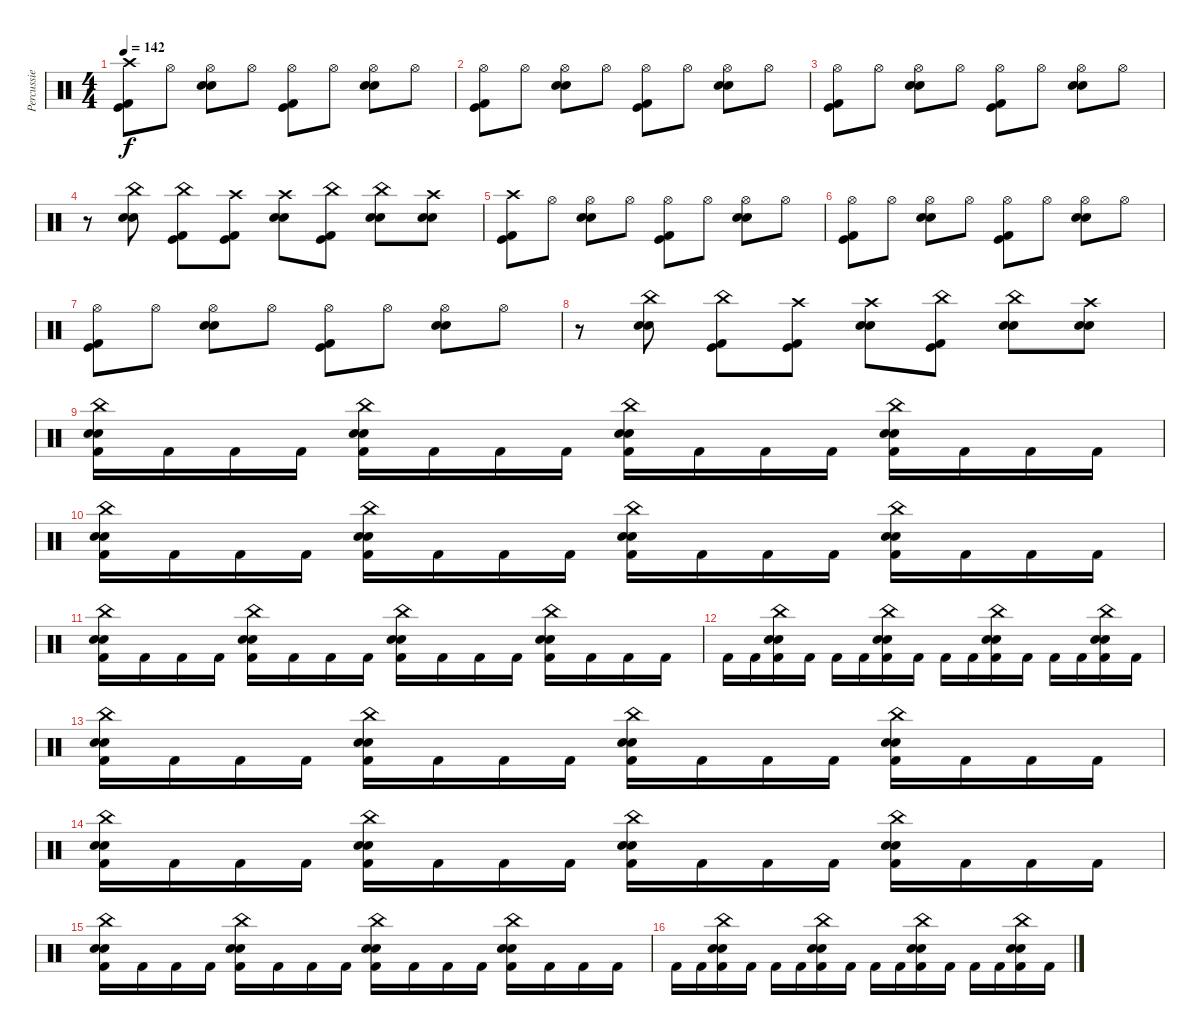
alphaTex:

\track ("Percussie" "Percussie") {instrument percussion}
\staff {score}
\articulation defaults
\ts (4 4)
\tempo 142
\clef neutral
\ks c
("Kick (hit) 2" "Kick (hit)" "Crash high (hit)").8{dy f} "Hi-Hat (open)".8 ("Snare (hit) 2" "Electric Snare (hit)" "Hi-Hat (open)").8 "Hi-Hat (open)".8 ("Kick (hit) 2" "Kick (hit)" "Hi-Hat (open)").8 "Hi-Hat (open)".8 ("Snare (hit) 2" "Electric Snare (hit)" "Hi-Hat (open)").8 "Hi-Hat (open)".8 |
("Kick (hit) 2" "Kick (hit)" "Hi-Hat (open)").8 "Hi-Hat (open)".8 ("Snare (hit) 2" "Electric Snare (hit)" "Hi-Hat (open)").8 "Hi-Hat (open)".8 ("Kick (hit) 2" "Kick (hit)" "Hi-Hat (open)").8 "Hi-Hat (open)".8 ("Snare (hit) 2" "Electric Snare (hit)" "Hi-Hat (open)").8 "Hi-Hat (open)".8 |
("Kick (hit) 2" "Kick (hit)" "Hi-Hat (open)").8 "Hi-Hat (open)".8 ("Snare (hit) 2" "Electric Snare (hit)" "Hi-Hat (open)").8 "Hi-Hat (open)".8 ("Kick (hit) 2" "Kick (hit)" "Hi-Hat (open)").8 "Hi-Hat (open)".8 ("Snare (hit) 2" "Electric Snare (hit)" "Hi-Hat (open)").8 "Hi-Hat (open)".8 |
r.8 ("Snare (hit) 2" "Electric Snare (hit)" "China (hit)").8 ("Kick (hit)" "Kick (hit) 2" "China (hit)").8 ("Kick (hit)" "Kick (hit) 2" "Crash high (hit)").8 ("Snare (hit) 2" "Electric Snare (hit)" "Crash high (hit)").8 ("Kick (hit)" "Kick (hit) 2" "China (hit)").8 ("Snare (hit) 2" "Electric Snare (hit)" "China (hit)").8 ("Snare (hit) 2" "Electric Snare (hit)" "Crash high (hit)").8 |
("Kick (hit) 2" "Kick (hit)" "Crash high (hit)").8 "Hi-Hat (open)".8 ("Snare (hit) 2" "Electric Snare (hit)" "Hi-Hat (open)").8 "Hi-Hat (open)".8 ("Kick (hit) 2" "Kick (hit)" "Hi-Hat (open)").8 "Hi-Hat (open)".8 ("Snare (hit) 2" "Electric Snare (hit)" "Hi-Hat (open)").8 "Hi-Hat (open)".8 |
("Kick (hit) 2" "Kick (hit)" "Hi-Hat (open)").8 "Hi-Hat (open)".8 ("Snare (hit) 2" "Electric Snare (hit)" "Hi-Hat (open)").8 "Hi-Hat (open)".8 ("Kick (hit) 2" "Kick (hit)" "Hi-Hat (open)").8 "Hi-Hat (open)".8 ("Snare (hit) 2" "Electric Snare (hit)" "Hi-Hat (open)").8 "Hi-Hat (open)".8 |
("Kick (hit) 2" "Kick (hit)" "Hi-Hat (open)").8 "Hi-Hat (open)".8 ("Snare (hit) 2" "Electric Snare (hit)" "Hi-Hat (open)").8 "Hi-Hat (open)".8 ("Kick (hit) 2" "Kick (hit)" "Hi-Hat (open)").8 "Hi-Hat (open)".8 ("Snare (hit) 2" "Electric Snare (hit)" "Hi-Hat (open)").8 "Hi-Hat (open)".8 |
r.8 ("Snare (hit) 2" "Electric Snare (hit)" "China (hit)").8 ("Kick (hit)" "Kick (hit) 2" "China (hit)").8 ("Kick (hit)" "Kick (hit) 2" "Crash high (hit)").8 ("Snare (hit) 2" "Electric Snare (hit)" "Crash high (hit)").8 ("Kick (hit)" "Kick (hit) 2" "China (hit)").8 ("Snare (hit) 2" "Electric Snare (hit)" "China (hit)").8 ("Snare (hit) 2" "Electric Snare (hit)" "Crash high (hit)").8 |
("Kick (hit) 2" "Electric Snare (hit)" "Snare (hit) 2" "China (hit)").16 "Kick (hit) 2".16 "Kick (hit) 2".16 "Kick (hit) 2".16 ("Kick (hit) 2" "Electric Snare (hit)" "Snare (hit) 2" "China (hit)").16 "Kick (hit) 2".16 "Kick (hit) 2".16 "Kick (hit) 2".16 ("Kick (hit) 2" "Electric Snare (hit)" "Snare (hit) 2" "China (hit)").16 "Kick (hit) 2".16 "Kick (hit) 2".16 "Kick (hit) 2".16 ("Kick (hit) 2" "Electric Snare (hit)" "Snare (hit) 2" "China (hit)").16 "Kick (hit) 2".16 "Kick (hit) 2".16 "Kick (hit) 2".16 |
("Kick (hit) 2" "Electric Snare (hit)" "Snare (hit) 2" "China (hit)").16 "Kick (hit) 2".16 "Kick (hit) 2".16 "Kick (hit) 2".16 ("Kick (hit) 2" "Electric Snare (hit)" "Snare (hit) 2" "China (hit)").16 "Kick (hit) 2".16 "Kick (hit) 2".16 "Kick (hit) 2".16 ("Kick (hit) 2" "Electric Snare (hit)" "Snare (hit) 2" "China (hit)").16 "Kick (hit) 2".16 "Kick (hit) 2".16 "Kick (hit) 2".16 ("Kick (hit) 2" "Electric Snare (hit)" "Snare (hit) 2" "China (hit)").16 "Kick (hit) 2".16 "Kick (hit) 2".16 "Kick (hit) 2".16 |
("Kick (hit) 2" "Electric Snare (hit)" "Snare (hit) 2" "China (hit)").16 "Kick (hit) 2".16 "Kick (hit) 2".16 "Kick (hit) 2".16 ("Kick (hit) 2" "Electric Snare (hit)" "Snare (hit) 2" "China (hit)").16 "Kick (hit) 2".16 "Kick (hit) 2".16 "Kick (hit) 2".16 ("Kick (hit) 2" "Electric Snare (hit)" "Snare (hit) 2" "China (hit)").16 "Kick (hit) 2".16 "Kick (hit) 2".16 "Kick (hit) 2".16 ("Kick (hit) 2" "Electric Snare (hit)" "Snare (hit) 2" "China (hit)").16 "Kick (hit) 2".16 "Kick (hit) 2".16 "Kick (hit) 2".16 |
"Kick (hit) 2".16 "Kick (hit) 2".16 ("Kick (hit) 2" "Snare (hit) 2" "Electric Snare (hit)" "China (hit)").16 "Kick (hit) 2".16 "Kick (hit) 2".16 "Kick (hit) 2".16 ("Kick (hit) 2" "Snare (hit) 2" "Electric Snare (hit)" "China (hit)").16 "Kick (hit) 2".16 "Kick (hit) 2".16 "Kick (hit) 2".16 ("Kick (hit) 2" "Snare (hit) 2" "Electric Snare (hit)" "China (hit)").16 "Kick (hit) 2".16 "Kick (hit) 2".16 "Kick (hit) 2".16 ("Kick (hit) 2" "Snare (hit) 2" "Electric Snare (hit)" "China (hit)").16 "Kick (hit) 2".16 |
("Kick (hit) 2" "Electric Snare (hit)" "Snare (hit) 2" "China (hit)").16 "Kick (hit) 2".16 "Kick (hit) 2".16 "Kick (hit) 2".16 ("Kick (hit) 2" "Electric Snare (hit)" "Snare (hit) 2" "China (hit)").16 "Kick (hit) 2".16 "Kick (hit) 2".16 "Kick (hit) 2".16 ("Kick (hit) 2" "Electric Snare (hit)" "Snare (hit) 2" "China (hit)").16 "Kick (hit) 2".16 "Kick (hit) 2".16 "Kick (hit) 2".16 ("Kick (hit) 2" "Electric Snare (hit)" "Snare (hit) 2" "China (hit)").16 "Kick (hit) 2".16 "Kick (hit) 2".16 "Kick (hit) 2".16 |
("Kick (hit) 2" "Electric Snare (hit)" "Snare (hit) 2" "China (hit)").16 "Kick (hit) 2".16 "Kick (hit) 2".16 "Kick (hit) 2".16 ("Kick (hit) 2" "Electric Snare (hit)" "Snare (hit) 2" "China (hit)").16 "Kick (hit) 2".16 "Kick (hit) 2".16 "Kick (hit) 2".16 ("Kick (hit) 2" "Electric Snare (hit)" "Snare (hit) 2" "China (hit)").16 "Kick (hit) 2".16 "Kick (hit) 2".16 "Kick (hit) 2".16 ("Kick (hit) 2" "Electric Snare (hit)" "Snare (hit) 2" "China (hit)").16 "Kick (hit) 2".16 "Kick (hit) 2".16 "Kick (hit) 2".16 |
("Kick (hit) 2" "Electric Snare (hit)" "Snare (hit) 2" "China (hit)").16 "Kick (hit) 2".16 "Kick (hit) 2".16 "Kick (hit) 2".16 ("Kick (hit) 2" "Electric Snare (hit)" "Snare (hit) 2" "China (hit)").16 "Kick (hit) 2".16 "Kick (hit) 2".16 "Kick (hit) 2".16 ("Kick (hit) 2" "Electric Snare (hit)" "Snare (hit) 2" "China (hit)").16 "Kick (hit) 2".16 "Kick (hit) 2".16 "Kick (hit) 2".16 ("Kick (hit) 2" "Electric Snare (hit)" "Snare (hit) 2" "China (hit)").16 "Kick (hit) 2".16 "Kick (hit) 2".16 "Kick (hit) 2".16 |
"Kick (hit) 2".16 "Kick (hit) 2".16 ("Kick (hit) 2" "Snare (hit) 2" "Electric Snare (hit)" "China (hit)").16 "Kick (hit) 2".16 "Kick (hit) 2".16 "Kick (hit) 2".16 ("Kick (hit) 2" "Snare (hit) 2" "Electric Snare (hit)" "China (hit)").16 "Kick (hit) 2".16 "Kick (hit) 2".16 "Kick (hit) 2".16 ("Kick (hit) 2" "Snare (hit) 2" "Electric Snare (hit)" "China (hit)").16 "Kick (hit) 2".16 "Kick (hit) 2".16 "Kick (hit) 2".16 ("Kick (hit) 2" "Snare (hit) 2" "Electric Snare (hit)" "China (hit)").16 "Kick (hit) 2".16
